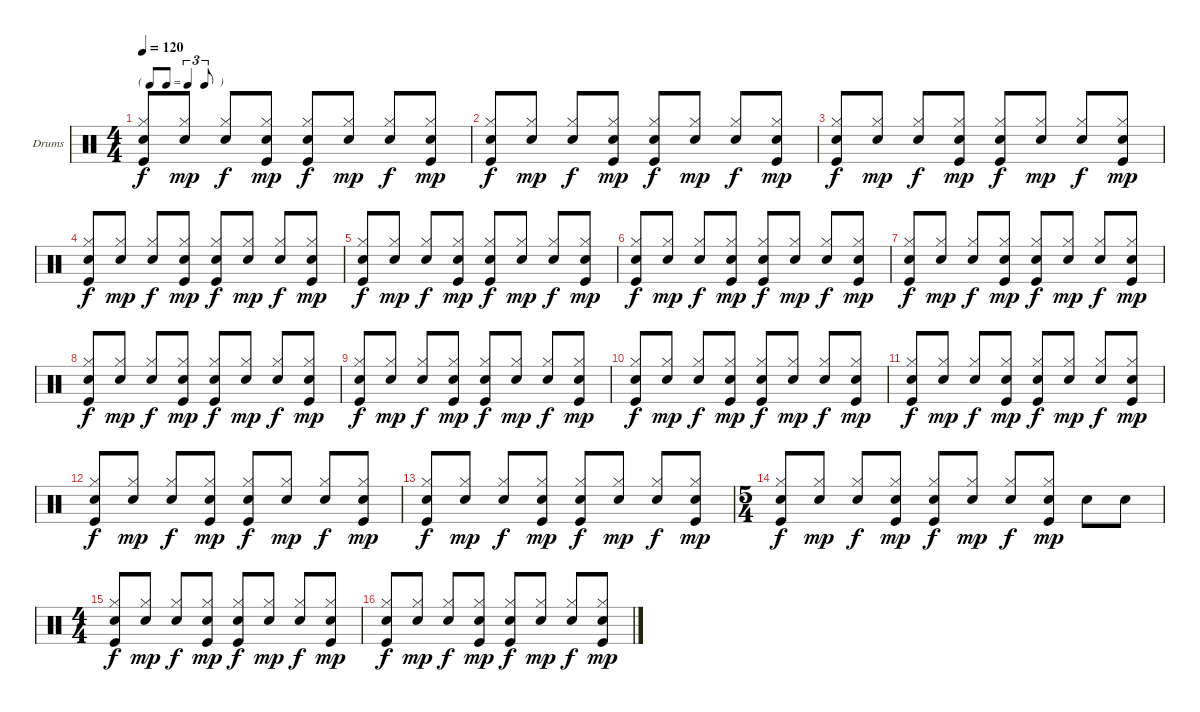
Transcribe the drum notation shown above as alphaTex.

\defaultSystemsLayout 4
\bracketExtendMode groupsimilarinstruments
\firstSystemTrackNameOrientation horizontal
\otherSystemsTrackNameOrientation horizontal
\track ("Drumkit" "Drums") {instrument percussion}
\staff {score}
\articulation defaults
\ts (4 4)
\tf triplet8th
\tempo 120
\clef neutral
\scale
0.472222
\ks c
("Hi-Hat (closed)" "Kick (hit)" "Snare (hit) 2").8{dy f beam invert} ("Hi-Hat (closed)" "Snare (hit) 2").8{dy mp} ("Hi-Hat (closed)" "Snare (hit) 2").8{dy f beam invert} ("Hi-Hat (closed)" "Kick (hit)" "Snare (hit) 2").8{dy mp} ("Hi-Hat (closed)" "Kick (hit)" "Snare (hit) 2").8{dy f beam invert} ("Hi-Hat (closed)" "Snare (hit) 2").8{dy mp} ("Hi-Hat (closed)" "Snare (hit) 2").8{dy f beam invert} ("Hi-Hat (closed)" "Kick (hit)" "Snare (hit) 2").8{dy mp} |
\scale
0.263889 ("Hi-Hat (closed)" "Kick (hit)" "Snare (hit) 2").8{dy f beam invert} ("Hi-Hat (closed)" "Snare (hit) 2").8{dy mp} ("Hi-Hat (closed)" "Snare (hit) 2").8{dy f beam invert} ("Hi-Hat (closed)" "Kick (hit)" "Snare (hit) 2").8{dy mp} ("Hi-Hat (closed)" "Kick (hit)" "Snare (hit) 2").8{dy f beam invert} ("Hi-Hat (closed)" "Snare (hit) 2").8{dy mp} ("Hi-Hat (closed)" "Snare (hit) 2").8{dy f beam invert} ("Hi-Hat (closed)" "Kick (hit)" "Snare (hit) 2").8{dy mp} |
\scale
0.263889 ("Hi-Hat (closed)" "Kick (hit)" "Snare (hit) 2").8{dy f beam invert} ("Hi-Hat (closed)" "Snare (hit) 2").8{dy mp} ("Hi-Hat (closed)" "Snare (hit) 2").8{dy f beam invert} ("Hi-Hat (closed)" "Kick (hit)" "Snare (hit) 2").8{dy mp} ("Hi-Hat (closed)" "Kick (hit)" "Snare (hit) 2").8{dy f beam invert} ("Hi-Hat (closed)" "Snare (hit) 2").8{dy mp} ("Hi-Hat (closed)" "Snare (hit) 2").8{dy f beam invert} ("Hi-Hat (closed)" "Kick (hit)" "Snare (hit) 2").8{dy mp} |
\scale
0.333333 ("Hi-Hat (closed)" "Kick (hit)" "Snare (hit) 2").8{dy f beam invert} ("Hi-Hat (closed)" "Snare (hit) 2").8{dy mp} ("Hi-Hat (closed)" "Snare (hit) 2").8{dy f beam invert} ("Hi-Hat (closed)" "Kick (hit)" "Snare (hit) 2").8{dy mp} ("Hi-Hat (closed)" "Kick (hit)" "Snare (hit) 2").8{dy f beam invert} ("Hi-Hat (closed)" "Snare (hit) 2").8{dy mp} ("Hi-Hat (closed)" "Snare (hit) 2").8{dy f beam invert} ("Hi-Hat (closed)" "Kick (hit)" "Snare (hit) 2").8{dy mp} |
\scale
0.333333 ("Hi-Hat (closed)" "Kick (hit)" "Snare (hit) 2").8{dy f beam invert} ("Hi-Hat (closed)" "Snare (hit) 2").8{dy mp} ("Hi-Hat (closed)" "Snare (hit) 2").8{dy f beam invert} ("Hi-Hat (closed)" "Kick (hit)" "Snare (hit) 2").8{dy mp} ("Hi-Hat (closed)" "Kick (hit)" "Snare (hit) 2").8{dy f beam invert} ("Hi-Hat (closed)" "Snare (hit) 2").8{dy mp} ("Hi-Hat (closed)" "Snare (hit) 2").8{dy f beam invert} ("Hi-Hat (closed)" "Kick (hit)" "Snare (hit) 2").8{dy mp} |
\scale
0.333333 ("Hi-Hat (closed)" "Kick (hit)" "Snare (hit) 2").8{dy f beam invert} ("Hi-Hat (closed)" "Snare (hit) 2").8{dy mp} ("Hi-Hat (closed)" "Snare (hit) 2").8{dy f beam invert} ("Hi-Hat (closed)" "Kick (hit)" "Snare (hit) 2").8{dy mp} ("Hi-Hat (closed)" "Kick (hit)" "Snare (hit) 2").8{dy f beam invert} ("Hi-Hat (closed)" "Snare (hit) 2").8{dy mp} ("Hi-Hat (closed)" "Snare (hit) 2").8{dy f beam invert} ("Hi-Hat (closed)" "Kick (hit)" "Snare (hit) 2").8{dy mp} |
\scale
0.333333 ("Hi-Hat (closed)" "Kick (hit)" "Snare (hit) 2").8{dy f beam invert} ("Hi-Hat (closed)" "Snare (hit) 2").8{dy mp} ("Hi-Hat (closed)" "Snare (hit) 2").8{dy f beam invert} ("Hi-Hat (closed)" "Kick (hit)" "Snare (hit) 2").8{dy mp} ("Hi-Hat (closed)" "Kick (hit)" "Snare (hit) 2").8{dy f beam invert} ("Hi-Hat (closed)" "Snare (hit) 2").8{dy mp} ("Hi-Hat (closed)" "Snare (hit) 2").8{dy f beam invert} ("Hi-Hat (closed)" "Kick (hit)" "Snare (hit) 2").8{dy mp} |
\scale
0.333333 ("Hi-Hat (closed)" "Kick (hit)" "Snare (hit) 2").8{dy f beam invert} ("Hi-Hat (closed)" "Snare (hit) 2").8{dy mp} ("Hi-Hat (closed)" "Snare (hit) 2").8{dy f beam invert} ("Hi-Hat (closed)" "Kick (hit)" "Snare (hit) 2").8{dy mp} ("Hi-Hat (closed)" "Kick (hit)" "Snare (hit) 2").8{dy f beam invert} ("Hi-Hat (closed)" "Snare (hit) 2").8{dy mp} ("Hi-Hat (closed)" "Snare (hit) 2").8{dy f beam invert} ("Hi-Hat (closed)" "Kick (hit)" "Snare (hit) 2").8{dy mp} |
\scale
0.333333 ("Hi-Hat (closed)" "Kick (hit)" "Snare (hit) 2").8{dy f beam invert} ("Hi-Hat (closed)" "Snare (hit) 2").8{dy mp} ("Hi-Hat (closed)" "Snare (hit) 2").8{dy f beam invert} ("Hi-Hat (closed)" "Kick (hit)" "Snare (hit) 2").8{dy mp} ("Hi-Hat (closed)" "Kick (hit)" "Snare (hit) 2").8{dy f beam invert} ("Hi-Hat (closed)" "Snare (hit) 2").8{dy mp} ("Hi-Hat (closed)" "Snare (hit) 2").8{dy f beam invert} ("Hi-Hat (closed)" "Kick (hit)" "Snare (hit) 2").8{dy mp} |
\scale
0.333333 ("Hi-Hat (closed)" "Kick (hit)" "Snare (hit) 2").8{dy f beam invert} ("Hi-Hat (closed)" "Snare (hit) 2").8{dy mp} ("Hi-Hat (closed)" "Snare (hit) 2").8{dy f beam invert} ("Hi-Hat (closed)" "Kick (hit)" "Snare (hit) 2").8{dy mp} ("Hi-Hat (closed)" "Kick (hit)" "Snare (hit) 2").8{dy f beam invert} ("Hi-Hat (closed)" "Snare (hit) 2").8{dy mp} ("Hi-Hat (closed)" "Snare (hit) 2").8{dy f beam invert} ("Hi-Hat (closed)" "Kick (hit)" "Snare (hit) 2").8{dy mp} |
\scale
0.333333 ("Hi-Hat (closed)" "Kick (hit)" "Snare (hit) 2").8{dy f beam invert} ("Hi-Hat (closed)" "Snare (hit) 2").8{dy mp} ("Hi-Hat (closed)" "Snare (hit) 2").8{dy f beam invert} ("Hi-Hat (closed)" "Kick (hit)" "Snare (hit) 2").8{dy mp} ("Hi-Hat (closed)" "Kick (hit)" "Snare (hit) 2").8{dy f beam invert} ("Hi-Hat (closed)" "Snare (hit) 2").8{dy mp} ("Hi-Hat (closed)" "Snare (hit) 2").8{dy f beam invert} ("Hi-Hat (closed)" "Kick (hit)" "Snare (hit) 2").8{dy mp} |
\scale
0.333333 ("Hi-Hat (closed)" "Kick (hit)" "Snare (hit) 2").8{dy f beam invert} ("Hi-Hat (closed)" "Snare (hit) 2").8{dy mp} ("Hi-Hat (closed)" "Snare (hit) 2").8{dy f beam invert} ("Hi-Hat (closed)" "Kick (hit)" "Snare (hit) 2").8{dy mp} ("Hi-Hat (closed)" "Kick (hit)" "Snare (hit) 2").8{dy f beam invert} ("Hi-Hat (closed)" "Snare (hit) 2").8{dy mp} ("Hi-Hat (closed)" "Snare (hit) 2").8{dy f beam invert} ("Hi-Hat (closed)" "Kick (hit)" "Snare (hit) 2").8{dy mp} |
\scale
0.218391 ("Hi-Hat (closed)" "Kick (hit)" "Snare (hit) 2").8{dy f beam invert} ("Hi-Hat (closed)" "Snare (hit) 2").8{dy mp} ("Hi-Hat (closed)" "Snare (hit) 2").8{dy f beam invert} ("Hi-Hat (closed)" "Kick (hit)" "Snare (hit) 2").8{dy mp} ("Hi-Hat (closed)" "Kick (hit)" "Snare (hit) 2").8{dy f beam invert} ("Hi-Hat (closed)" "Snare (hit) 2").8{dy mp} ("Hi-Hat (closed)" "Snare (hit) 2").8{dy f beam invert} ("Hi-Hat (closed)" "Kick (hit)" "Snare (hit) 2").8{dy mp} |
\ts (5 4)
\scale
0.390805 ("Hi-Hat (closed)" "Kick (hit)" "Snare (hit) 2").8{dy f beam invert} ("Hi-Hat (closed)" "Snare (hit) 2").8{dy mp} ("Hi-Hat (closed)" "Snare (hit) 2").8{dy f beam invert} ("Hi-Hat (closed)" "Kick (hit)" "Snare (hit) 2").8{dy mp} ("Hi-Hat (closed)" "Kick (hit)" "Snare (hit) 2").8{dy f beam invert} ("Hi-Hat (closed)" "Snare (hit) 2").8{dy mp} ("Hi-Hat (closed)" "Snare (hit) 2").8{dy f beam invert} ("Hi-Hat (closed)" "Kick (hit)" "Snare (hit) 2").8{dy mp} "Snare (hit) 2".8 "Snare (hit) 2".8 |
\ts (4 4)
\scale
0.390805 ("Hi-Hat (closed)" "Kick (hit)" "Snare (hit) 2").8{dy f beam invert} ("Hi-Hat (closed)" "Snare (hit) 2").8{dy mp} ("Hi-Hat (closed)" "Snare (hit) 2").8{dy f beam invert} ("Hi-Hat (closed)" "Kick (hit)" "Snare (hit) 2").8{dy mp} ("Hi-Hat (closed)" "Kick (hit)" "Snare (hit) 2").8{dy f beam invert} ("Hi-Hat (closed)" "Snare (hit) 2").8{dy mp} ("Hi-Hat (closed)" "Snare (hit) 2").8{dy f beam invert} ("Hi-Hat (closed)" "Kick (hit)" "Snare (hit) 2").8{dy mp} |
\scale
0.333333 ("Hi-Hat (closed)" "Kick (hit)" "Snare (hit) 2").8{dy f beam invert} ("Hi-Hat (closed)" "Snare (hit) 2").8{dy mp} ("Hi-Hat (closed)" "Snare (hit) 2").8{dy f beam invert} ("Hi-Hat (closed)" "Kick (hit)" "Snare (hit) 2").8{dy mp} ("Hi-Hat (closed)" "Kick (hit)" "Snare (hit) 2").8{dy f beam invert} ("Hi-Hat (closed)" "Snare (hit) 2").8{dy mp} ("Hi-Hat (closed)" "Snare (hit) 2").8{dy f beam invert} ("Hi-Hat (closed)" "Kick (hit)" "Snare (hit) 2").8{dy mp}
